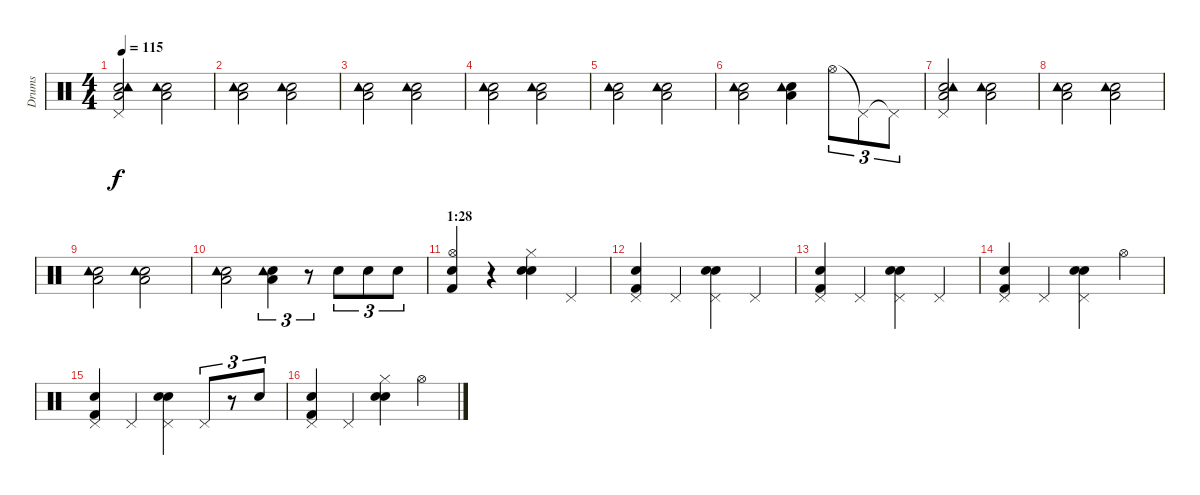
\track ("Drums" "Drums") {instrument percussion}
\staff {score}
\articulation defaults
\ts (4 4)
\tempo 115
\clef neutral
\ks c
("Hand Clap (hit)" "Low Floor Tom (hit)" "Tambourine (hit)" "Pedal Hi-Hat (hit)").2{dy f} ("Hand Clap (hit)" "Low Floor Tom (hit)" "Tambourine (hit)").2 |
("Hand Clap (hit)" "Low Floor Tom (hit)" "Tambourine (hit)").2 ("Hand Clap (hit)" "Low Floor Tom (hit)" "Tambourine (hit)").2 |
("Hand Clap (hit)" "Low Floor Tom (hit)" "Tambourine (hit)").2 ("Hand Clap (hit)" "Low Floor Tom (hit)" "Tambourine (hit)").2 |
("Hand Clap (hit)" "Low Floor Tom (hit)" "Tambourine (hit)").2 ("Hand Clap (hit)" "Low Floor Tom (hit)" "Tambourine (hit)").2 |
("Hand Clap (hit)" "Low Floor Tom (hit)" "Tambourine (hit)").2 ("Hand Clap (hit)" "Low Floor Tom (hit)" "Tambourine (hit)").2 |
("Hand Clap (hit)" "Low Floor Tom (hit)" "Tambourine (hit)").2 ("Hand Clap (hit)" "Low Floor Tom (hit)" "Tambourine (hit)").4 "Hi-Hat (open)".8{tu (3 2)} "Pedal Hi-Hat (hit)"{t}.8{tu (3 2)} "Pedal Hi-Hat (hit)"{t}.8{tu (3 2)} |
("Hand Clap (hit)" "Low Floor Tom (hit)" "Tambourine (hit)" "Pedal Hi-Hat (hit)").2 ("Hand Clap (hit)" "Low Floor Tom (hit)" "Tambourine (hit)").2 |
("Hand Clap (hit)" "Low Floor Tom (hit)" "Tambourine (hit)").2 ("Hand Clap (hit)" "Low Floor Tom (hit)" "Tambourine (hit)").2 |
("Hand Clap (hit)" "Low Floor Tom (hit)" "Tambourine (hit)").2 ("Hand Clap (hit)" "Low Floor Tom (hit)" "Tambourine (hit)").2 |
("Hand Clap (hit)" "Low Floor Tom (hit)" "Tambourine (hit)").2 ("Hand Clap (hit)" "Low Floor Tom (hit)" "Tambourine (hit)").4{tu (3 2)} r.8{tu (3 2)} "Electric Snare (hit)".8{tu (3 2)} "Electric Snare (hit)".8{tu (3 2)} "Electric Snare (hit)".8{tu (3 2)} |
\section ("" "1:28")
("Hi-Hat (open)" "Hand Clap (hit)" "Kick (hit) 2").4 r.4 ("Hi-Hat (closed)" "Hand Clap (hit)" "Electric Snare (hit)").4 "Pedal Hi-Hat (hit)".4 |
("Pedal Hi-Hat (hit)" "Hand Clap (hit)" "Kick (hit) 2").4 "Pedal Hi-Hat (hit)".4 ("Pedal Hi-Hat (hit)" "Hand Clap (hit)" "Electric Snare (hit)").4 "Pedal Hi-Hat (hit)".4 |
("Pedal Hi-Hat (hit)" "Hand Clap (hit)" "Kick (hit) 2").4 "Pedal Hi-Hat (hit)".4 ("Pedal Hi-Hat (hit)" "Hand Clap (hit)" "Electric Snare (hit)").4 "Pedal Hi-Hat (hit)".4 |
("Pedal Hi-Hat (hit)" "Hand Clap (hit)" "Kick (hit) 2").4 "Pedal Hi-Hat (hit)".4 ("Pedal Hi-Hat (hit)" "Hand Clap (hit)" "Electric Snare (hit)").4 "Hi-Hat (open)".4 |
("Pedal Hi-Hat (hit)" "Hand Clap (hit)" "Kick (hit) 2").4 "Pedal Hi-Hat (hit)".4 ("Pedal Hi-Hat (hit)" "Hand Clap (hit)" "Electric Snare (hit)").4 "Pedal Hi-Hat (hit)".8{tu (3 2)} r.8{tu (3 2)} "Electric Snare (hit)".8{tu (3 2)} |
("Pedal Hi-Hat (hit)" "Hand Clap (hit)" "Kick (hit) 2").4 "Pedal Hi-Hat (hit)".4 ("Hi-Hat (closed)" "Hand Clap (hit)" "Electric Snare (hit)").4 "Hi-Hat (open)".4
